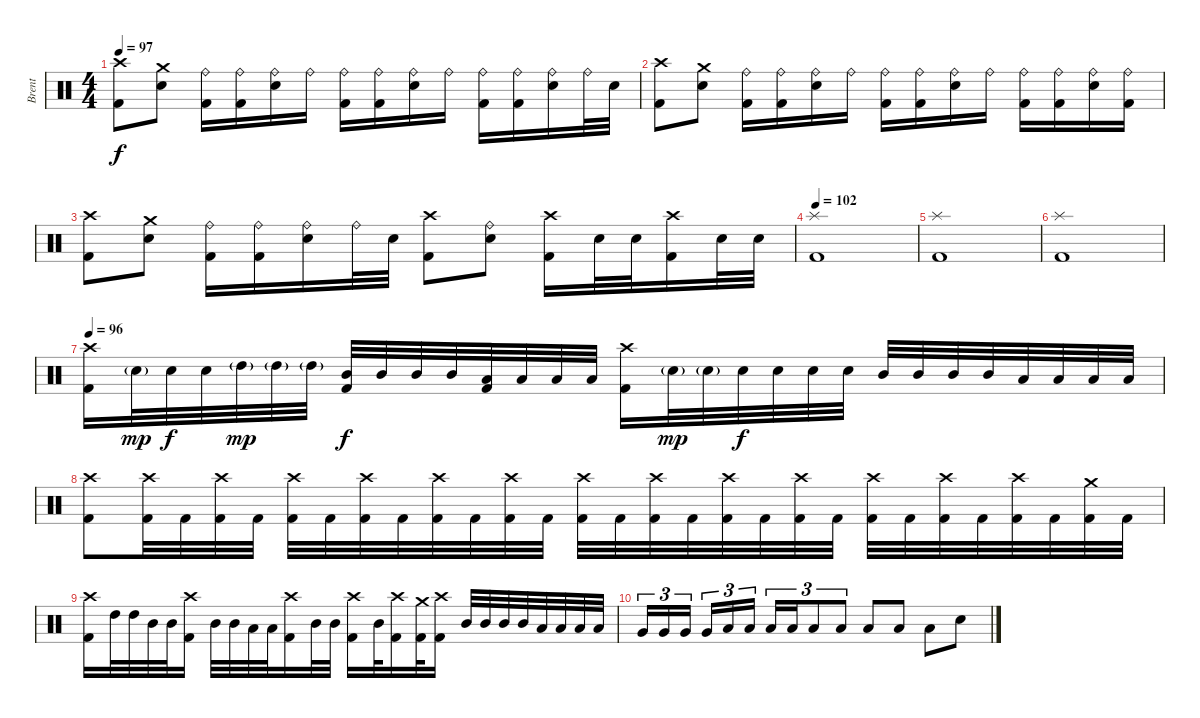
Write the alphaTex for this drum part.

\track ("Brent" "Brent") {instrument percussion}
\staff {score}
\articulation defaults
\ts (4 4)
\tempo 97
\clef neutral
\ks c
("Crash high (hit)" "Kick (hit) 2").8{dy f} ("Crash medium (hit)" "Snare (hit) 2").8 ("Ride (bell)" "Kick (hit) 2").16 ("Ride (bell)" "Kick (hit) 2").16 ("Ride (bell)" "Snare (hit) 2").16 "Ride (bell)".16 ("Ride (bell)" "Kick (hit) 2").16 ("Ride (bell)" "Kick (hit) 2").16 ("Ride (bell)" "Snare (hit) 2").16 "Ride (bell)".16 ("Ride (bell)" "Kick (hit) 2").16 ("Ride (bell)" "Kick (hit) 2").16 ("Ride (bell)" "Snare (hit) 2").16 "Ride (bell)".32 "Snare (hit) 2".32 |
("Crash high (hit)" "Kick (hit) 2").8 ("Crash medium (hit)" "Snare (hit) 2").8 ("Ride (bell)" "Kick (hit) 2").16 ("Ride (bell)" "Kick (hit) 2").16 ("Ride (bell)" "Snare (hit) 2").16 "Ride (bell)".16 ("Ride (bell)" "Kick (hit) 2").16 ("Ride (bell)" "Kick (hit) 2").16 ("Ride (bell)" "Snare (hit) 2").16 "Ride (bell)".16 ("Ride (bell)" "Kick (hit) 2").16 ("Ride (bell)" "Kick (hit) 2").16 ("Ride (bell)" "Snare (hit) 2").16 ("Ride (bell)" "Kick (hit) 2").16 |
("Crash high (hit)" "Kick (hit) 2").8 ("Crash medium (hit)" "Snare (hit) 2").8 ("Ride (bell)" "Kick (hit) 2").16 ("Ride (bell)" "Kick (hit) 2").16 ("Ride (bell)" "Snare (hit) 2").16 "Ride (bell)".32 "Snare (hit) 2".32 ("Crash high (hit)" "Kick (hit) 2").8 ("Ride (bell)" "Snare (hit) 2").8 ("Crash high (hit)" "Kick (hit) 2").16 "Snare (hit) 2".32 "Snare (hit) 2".32 ("Crash high (hit)" "Kick (hit) 2").16 "Snare (hit) 2".32 "Snare (hit) 2".32 |
\tempo 102
("Splash (hit)" "Kick (hit) 2").1 |
("Splash (hit)" "Kick (hit) 2").1 |
("Splash (hit)" "Kick (hit) 2").1 |
\tempo 96
("Crash high (hit)" "Kick (hit) 2").16 "Snare (hit) 2"{g}.32{dy mp} "Snare (hit) 2".32{dy f} "Snare (hit) 2".32 "High Tom (hit)"{g}.32{dy mp} "High Tom (hit)"{g}.32 "High Tom (hit)"{g}.32 ("Mid Tom (hit)" "Kick (hit) 2").32{dy f} "Mid Tom (hit)".32 "Mid Tom (hit)".32 "Mid Tom (hit)".32 ("Low Tom (hit)" "Kick (hit) 2").32 "Low Tom (hit)".32 "Low Tom (hit)".32 "Low Tom (hit)".32 ("Crash high (hit)" "Kick (hit) 2").16 "Snare (hit) 2"{g}.32{dy mp} "Snare (hit) 2"{g}.32 "Snare (hit) 2".32{dy f} "Snare (hit) 2".32 "Snare (hit) 2".32 "Snare (hit) 2".32 "Mid Tom (hit)".32 "Mid Tom (hit)".32 "Mid Tom (hit)".32 "Mid Tom (hit)".32 "Low Tom (hit)".32 "Low Tom (hit)".32 "Low Tom (hit)".32 "Low Tom (hit)".32 |
("Crash high (hit)" "Kick (hit) 2").8 ("Crash high (hit)" "Kick (hit) 2").32 "Kick (hit) 2".32 ("Crash high (hit)" "Kick (hit) 2").32 "Kick (hit) 2".32 ("Crash high (hit)" "Kick (hit) 2").32 "Kick (hit) 2".32 ("Crash high (hit)" "Kick (hit) 2").32 "Kick (hit) 2".32 ("Crash high (hit)" "Kick (hit) 2").32 "Kick (hit) 2".32 ("Crash high (hit)" "Kick (hit) 2").32 "Kick (hit) 2".32 ("Crash high (hit)" "Kick (hit) 2").32 "Kick (hit) 2".32 ("Crash high (hit)" "Kick (hit) 2").32 "Kick (hit) 2".32 ("Crash high (hit)" "Kick (hit) 2").32 "Kick (hit) 2".32 ("Crash high (hit)" "Kick (hit) 2").32 "Kick (hit) 2".32 ("Crash high (hit)" "Kick (hit) 2").32 "Kick (hit) 2".32 ("Crash high (hit)" "Kick (hit) 2").32 "Kick (hit) 2".32 ("Crash high (hit)" "Kick (hit) 2").32 "Kick (hit) 2".32 ("Crash medium (hit)" "Kick (hit) 2").32 "Kick (hit) 2".32 |
("Crash high (hit)" "Kick (hit) 2").16 "High Tom (hit)".32 "High Tom (hit)".32 "Mid Tom (hit)".32 "Mid Tom (hit)".32 ("Crash high (hit)" "Kick (hit) 2").16 "Mid Tom (hit)".32 "Mid Tom (hit)".32 "Low Tom (hit)".32 "Low Tom (hit)".32 ("Crash high (hit)" "Kick (hit) 2").16 "Mid Tom (hit)".32 "Mid Tom (hit)".32 ("Crash high (hit)" "Kick (hit) 2").16 "Mid Tom (hit)".32 ("Crash high (hit)" "Kick (hit) 2").16 ("Crash medium (hit)" "Kick (hit) 2").32 ("Crash high (hit)" "Kick (hit) 2").16 "Mid Tom (hit)".32 "Mid Tom (hit)".32 "Mid Tom (hit)".32 "Mid Tom (hit)".32 "Low Tom (hit)".32 "Low Tom (hit)".32 "Low Tom (hit)".32 "Low Tom (hit)".32 |
"Very Low Tom (hit)".16{tu (3 2)} "Very Low Tom (hit)".16{tu (3 2)} "Very Low Tom (hit)".16{tu (3 2)} "Very Low Tom (hit)".16{tu (3 2)} "Low Floor Tom (hit)".16{tu (3 2)} "Low Floor Tom (hit)".16{tu (3 2)} "Low Floor Tom (hit)".16{tu (3 2)} "Low Floor Tom (hit)".16{tu (3 2)} "Low Floor Tom (hit)".8{tu (3 2)} "Low Floor Tom (hit)".8{tu (3 2)} "Low Floor Tom (hit)".8 "Low Floor Tom (hit)".8 "Low Floor Tom (hit)".8 "Snare (hit) 2".8
